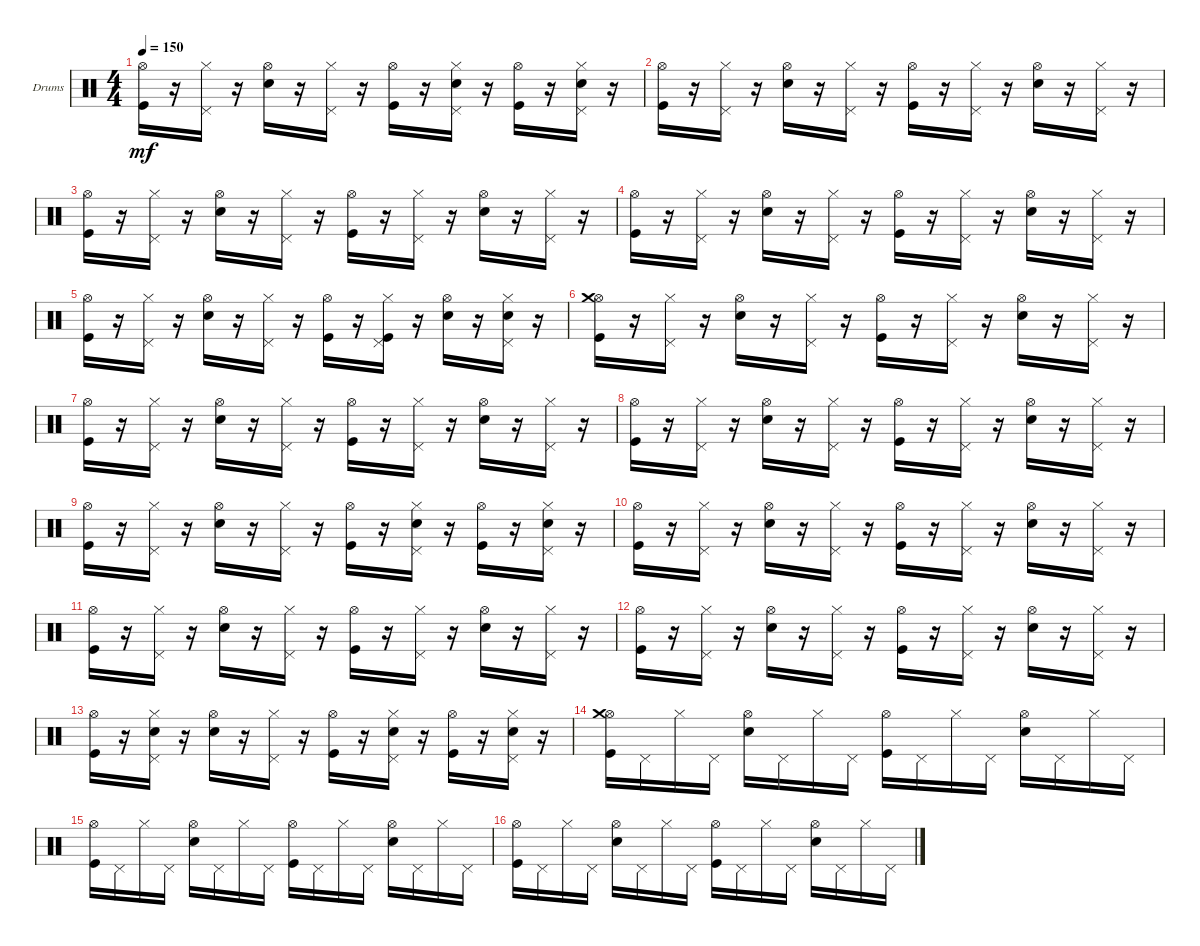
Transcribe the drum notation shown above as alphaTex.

\bracketExtendMode groupsimilarinstruments
\firstSystemTrackNameOrientation horizontal
\otherSystemsTrackNameOrientation horizontal
\track ("Drumkit" "Drums") {solo instrument percussion}
\staff {score}
\articulation defaults
\ts (4 4)
\tempo 150
\clef neutral
\ks c
("Kick (hit)" "Hi-Hat (open)").16{dy mf} r.16 ("Hi-Hat (closed)" "Pedal Hi-Hat (hit)").16 r.16 ("Snare (hit) 2" "Hi-Hat (open)").16 r.16 ("Hi-Hat (closed)" "Pedal Hi-Hat (hit)").16 r.16 ("Kick (hit)" "Hi-Hat (open)").16 r.16 ("Hi-Hat (closed)" "Pedal Hi-Hat (hit)" "Snare (hit) 2").16 r.16 ("Hi-Hat (open)" "Kick (hit)").16 r.16 ("Hi-Hat (closed)" "Pedal Hi-Hat (hit)" "Snare (hit) 2").16 r.16 |
("Kick (hit)" "Hi-Hat (open)").16 r.16 ("Hi-Hat (closed)" "Pedal Hi-Hat (hit)").16 r.16 ("Snare (hit) 2" "Hi-Hat (open)").16 r.16 ("Hi-Hat (closed)" "Pedal Hi-Hat (hit)").16 r.16 ("Kick (hit)" "Hi-Hat (open)").16 r.16 ("Hi-Hat (closed)" "Pedal Hi-Hat (hit)").16 r.16 ("Snare (hit) 2" "Hi-Hat (open)").16 r.16 ("Hi-Hat (closed)" "Pedal Hi-Hat (hit)").16 r.16 |
("Kick (hit)" "Hi-Hat (open)").16 r.16 ("Hi-Hat (closed)" "Pedal Hi-Hat (hit)").16 r.16 ("Snare (hit) 2" "Hi-Hat (open)").16 r.16 ("Hi-Hat (closed)" "Pedal Hi-Hat (hit)").16 r.16 ("Kick (hit)" "Hi-Hat (open)").16 r.16 ("Hi-Hat (closed)" "Pedal Hi-Hat (hit)").16 r.16 ("Snare (hit) 2" "Hi-Hat (open)").16 r.16 ("Hi-Hat (closed)" "Pedal Hi-Hat (hit)").16 r.16 |
("Kick (hit)" "Hi-Hat (open)").16 r.16 ("Hi-Hat (closed)" "Pedal Hi-Hat (hit)").16 r.16 ("Snare (hit) 2" "Hi-Hat (open)").16 r.16 ("Hi-Hat (closed)" "Pedal Hi-Hat (hit)").16 r.16 ("Kick (hit)" "Hi-Hat (open)").16 r.16 ("Hi-Hat (closed)" "Pedal Hi-Hat (hit)").16 r.16 ("Snare (hit) 2" "Hi-Hat (open)").16 r.16 ("Hi-Hat (closed)" "Pedal Hi-Hat (hit)").16 r.16 |
("Kick (hit)" "Hi-Hat (open)").16 r.16 ("Hi-Hat (closed)" "Pedal Hi-Hat (hit)").16 r.16 ("Snare (hit) 2" "Hi-Hat (open)").16 r.16 ("Hi-Hat (closed)" "Pedal Hi-Hat (hit)").16 r.16 ("Kick (hit)" "Hi-Hat (open)").16 r.16 ("Hi-Hat (closed)" "Kick (hit)" "Pedal Hi-Hat (hit)").16 r.16 ("Snare (hit) 2" "Hi-Hat (open)").16 r.16 ("Hi-Hat (closed)" "Snare (hit) 2" "Pedal Hi-Hat (hit)").16 r.16 |
("Kick (hit)" "Hi-Hat (open)" "Crash medium (hit)").16 r.16 ("Pedal Hi-Hat (hit)" "Hi-Hat (closed)").16 r.16 ("Snare (hit) 2" "Hi-Hat (open)").16 r.16 ("Pedal Hi-Hat (hit)" "Hi-Hat (closed)").16 r.16 ("Kick (hit)" "Hi-Hat (open)").16 r.16 ("Hi-Hat (closed)" "Pedal Hi-Hat (hit)").16 r.16 ("Snare (hit) 2" "Hi-Hat (open)").16 r.16 ("Hi-Hat (closed)" "Pedal Hi-Hat (hit)").16 r.16 |
("Kick (hit)" "Hi-Hat (open)").16 r.16 ("Hi-Hat (closed)" "Pedal Hi-Hat (hit)").16 r.16 ("Snare (hit) 2" "Hi-Hat (open)").16 r.16 ("Hi-Hat (closed)" "Pedal Hi-Hat (hit)").16 r.16 ("Kick (hit)" "Hi-Hat (open)").16 r.16 ("Hi-Hat (closed)" "Pedal Hi-Hat (hit)").16 r.16 ("Snare (hit) 2" "Hi-Hat (open)").16 r.16 ("Hi-Hat (closed)" "Pedal Hi-Hat (hit)").16 r.16 |
("Kick (hit)" "Hi-Hat (open)").16 r.16 ("Hi-Hat (closed)" "Pedal Hi-Hat (hit)").16 r.16 ("Snare (hit) 2" "Hi-Hat (open)").16 r.16 ("Hi-Hat (closed)" "Pedal Hi-Hat (hit)").16 r.16 ("Kick (hit)" "Hi-Hat (open)").16 r.16 ("Hi-Hat (closed)" "Pedal Hi-Hat (hit)").16 r.16 ("Snare (hit) 2" "Hi-Hat (open)").16 r.16 ("Hi-Hat (closed)" "Pedal Hi-Hat (hit)").16 r.16 |
("Kick (hit)" "Hi-Hat (open)").16 r.16 ("Hi-Hat (closed)" "Pedal Hi-Hat (hit)").16 r.16 ("Snare (hit) 2" "Hi-Hat (open)").16 r.16 ("Hi-Hat (closed)" "Pedal Hi-Hat (hit)").16 r.16 ("Kick (hit)" "Hi-Hat (open)").16 r.16 ("Hi-Hat (closed)" "Pedal Hi-Hat (hit)" "Snare (hit) 2").16 r.16 ("Hi-Hat (open)" "Kick (hit)").16 r.16 ("Hi-Hat (closed)" "Pedal Hi-Hat (hit)" "Snare (hit) 2").16 r.16 |
("Kick (hit)" "Hi-Hat (open)").16 r.16 ("Hi-Hat (closed)" "Pedal Hi-Hat (hit)").16 r.16 ("Snare (hit) 2" "Hi-Hat (open)").16 r.16 ("Hi-Hat (closed)" "Pedal Hi-Hat (hit)").16 r.16 ("Kick (hit)" "Hi-Hat (open)").16 r.16 ("Hi-Hat (closed)" "Pedal Hi-Hat (hit)").16 r.16 ("Snare (hit) 2" "Hi-Hat (open)").16 r.16 ("Hi-Hat (closed)" "Pedal Hi-Hat (hit)").16 r.16 |
("Kick (hit)" "Hi-Hat (open)").16 r.16 ("Hi-Hat (closed)" "Pedal Hi-Hat (hit)").16 r.16 ("Snare (hit) 2" "Hi-Hat (open)").16 r.16 ("Hi-Hat (closed)" "Pedal Hi-Hat (hit)").16 r.16 ("Kick (hit)" "Hi-Hat (open)").16 r.16 ("Hi-Hat (closed)" "Pedal Hi-Hat (hit)").16 r.16 ("Snare (hit) 2" "Hi-Hat (open)").16 r.16 ("Hi-Hat (closed)" "Pedal Hi-Hat (hit)").16 r.16 |
("Kick (hit)" "Hi-Hat (open)").16 r.16 ("Hi-Hat (closed)" "Pedal Hi-Hat (hit)").16 r.16 ("Snare (hit) 2" "Hi-Hat (open)").16 r.16 ("Hi-Hat (closed)" "Pedal Hi-Hat (hit)").16 r.16 ("Kick (hit)" "Hi-Hat (open)").16 r.16 ("Hi-Hat (closed)" "Pedal Hi-Hat (hit)").16 r.16 ("Snare (hit) 2" "Hi-Hat (open)").16 r.16 ("Hi-Hat (closed)" "Pedal Hi-Hat (hit)").16 r.16 |
("Kick (hit)" "Hi-Hat (open)").16 r.16 ("Hi-Hat (closed)" "Snare (hit) 2" "Pedal Hi-Hat (hit)").16 r.16 ("Snare (hit) 2" "Hi-Hat (open)").16 r.16 ("Hi-Hat (closed)" "Pedal Hi-Hat (hit)").16 r.16 ("Kick (hit)" "Hi-Hat (open)").16 r.16 ("Hi-Hat (closed)" "Snare (hit) 2" "Pedal Hi-Hat (hit)").16 r.16 ("Hi-Hat (open)" "Kick (hit)").16 r.16 ("Hi-Hat (closed)" "Snare (hit) 2" "Pedal Hi-Hat (hit)").16 r.16 |
("Kick (hit)" "Hi-Hat (open)" "Crash medium (hit)").16 "Pedal Hi-Hat (hit)".16 "Hi-Hat (closed)".16 "Pedal Hi-Hat (hit)".16 ("Snare (hit) 2" "Hi-Hat (open)").16 "Pedal Hi-Hat (hit)".16 "Hi-Hat (closed)".16 "Pedal Hi-Hat (hit)".16 ("Kick (hit)" "Hi-Hat (open)").16 "Pedal Hi-Hat (hit)".16 "Hi-Hat (closed)".16 "Pedal Hi-Hat (hit)".16 ("Snare (hit) 2" "Hi-Hat (open)").16 "Pedal Hi-Hat (hit)".16 "Hi-Hat (closed)".16 "Pedal Hi-Hat (hit)".16 |
("Kick (hit)" "Hi-Hat (open)").16 "Pedal Hi-Hat (hit)".16 "Hi-Hat (closed)".16 "Pedal Hi-Hat (hit)".16 ("Snare (hit) 2" "Hi-Hat (open)").16 "Pedal Hi-Hat (hit)".16 "Hi-Hat (closed)".16 "Pedal Hi-Hat (hit)".16 ("Kick (hit)" "Hi-Hat (open)").16 "Pedal Hi-Hat (hit)".16 "Hi-Hat (closed)".16 "Pedal Hi-Hat (hit)".16 ("Snare (hit) 2" "Hi-Hat (open)").16 "Pedal Hi-Hat (hit)".16 "Hi-Hat (closed)".16 "Pedal Hi-Hat (hit)".16 |
("Kick (hit)" "Hi-Hat (open)").16 "Pedal Hi-Hat (hit)".16 "Hi-Hat (closed)".16 "Pedal Hi-Hat (hit)".16 ("Snare (hit) 2" "Hi-Hat (open)").16 "Pedal Hi-Hat (hit)".16 "Hi-Hat (closed)".16 "Pedal Hi-Hat (hit)".16 ("Kick (hit)" "Hi-Hat (open)").16 "Pedal Hi-Hat (hit)".16 "Hi-Hat (closed)".16 "Pedal Hi-Hat (hit)".16 ("Snare (hit) 2" "Hi-Hat (open)").16 "Pedal Hi-Hat (hit)".16 "Hi-Hat (closed)".16 "Pedal Hi-Hat (hit)".16
